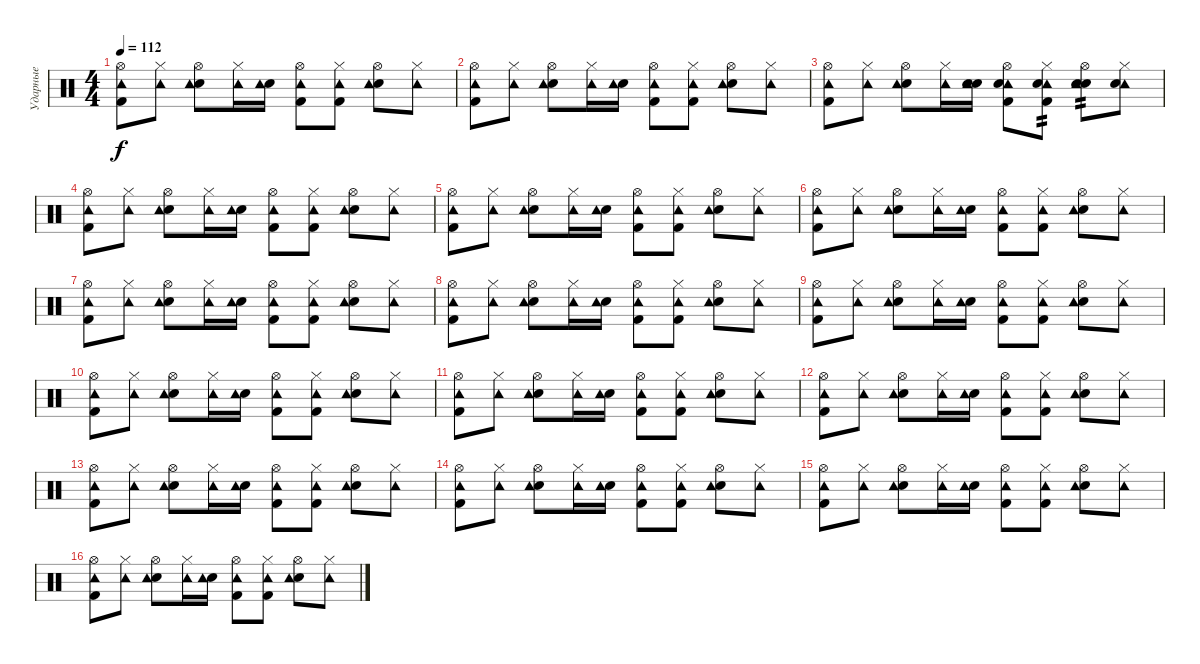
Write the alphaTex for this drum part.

\track ("Ударные" "Ударные") {instrument percussion}
\staff {score}
\articulation defaults
\ts (4 4)
\tempo 112
\clef neutral
\ks c
("Hi-Hat (open)" "Kick (hit) 2" "Tambourine (hit)").8{dy f} ("Hi-Hat (closed)" "Tambourine (hit)").8 ("Hi-Hat (open)" "Electric Snare (hit)" "Tambourine (hit)").8 ("Hi-Hat (closed)" "Tambourine (hit)").16 ("Electric Snare (hit)" "Tambourine (hit)").16 ("Hi-Hat (open)" "Kick (hit) 2" "Tambourine (hit)").8 ("Hi-Hat (closed)" "Kick (hit) 2" "Tambourine (hit)").8 ("Hi-Hat (open)" "Electric Snare (hit)" "Tambourine (hit)").8 ("Hi-Hat (closed)" "Tambourine (hit)").8 |
("Hi-Hat (open)" "Kick (hit) 2" "Tambourine (hit)").8 ("Hi-Hat (closed)" "Tambourine (hit)").8 ("Hi-Hat (open)" "Electric Snare (hit)" "Tambourine (hit)").8 ("Hi-Hat (closed)" "Tambourine (hit)").16 ("Electric Snare (hit)" "Tambourine (hit)").16 ("Hi-Hat (open)" "Kick (hit) 2" "Tambourine (hit)").8 ("Hi-Hat (closed)" "Kick (hit) 2" "Tambourine (hit)").8 ("Hi-Hat (open)" "Electric Snare (hit)" "Tambourine (hit)").8 ("Hi-Hat (closed)" "Tambourine (hit)").8 |
("Hi-Hat (open)" "Kick (hit) 2" "Tambourine (hit)").8 ("Hi-Hat (closed)" "Tambourine (hit)").8 ("Hi-Hat (open)" "Electric Snare (hit)" "Tambourine (hit)").8 ("Hi-Hat (closed)" "Tambourine (hit)").16 ("Electric Snare (hit)" "Tambourine (hit)" "Electric Snare (hit)").16 ("Hi-Hat (open)" "Kick (hit) 2" "Tambourine (hit)" "Electric Snare (hit)").8 ("Hi-Hat (closed)" "Kick (hit) 2" "Tambourine (hit)" "Electric Snare (hit)").8{tp 2} ("Hi-Hat (open)" "Electric Snare (hit)" "Tambourine (hit)" "Electric Snare (hit)").8{tp 2} ("Hi-Hat (closed)" "Tambourine (hit)" "Electric Snare (hit)").8 |
("Hi-Hat (open)" "Kick (hit) 2" "Tambourine (hit)").8 ("Hi-Hat (closed)" "Tambourine (hit)").8 ("Hi-Hat (open)" "Electric Snare (hit)" "Tambourine (hit)").8 ("Hi-Hat (closed)" "Tambourine (hit)").16 ("Electric Snare (hit)" "Tambourine (hit)").16 ("Hi-Hat (open)" "Kick (hit) 2" "Tambourine (hit)").8 ("Hi-Hat (closed)" "Kick (hit) 2" "Tambourine (hit)").8 ("Hi-Hat (open)" "Electric Snare (hit)" "Tambourine (hit)").8 ("Hi-Hat (closed)" "Tambourine (hit)").8 |
("Hi-Hat (open)" "Kick (hit) 2" "Tambourine (hit)").8 ("Hi-Hat (closed)" "Tambourine (hit)").8 ("Hi-Hat (open)" "Electric Snare (hit)" "Tambourine (hit)").8 ("Hi-Hat (closed)" "Tambourine (hit)").16 ("Electric Snare (hit)" "Tambourine (hit)").16 ("Hi-Hat (open)" "Kick (hit) 2" "Tambourine (hit)").8 ("Hi-Hat (closed)" "Kick (hit) 2" "Tambourine (hit)").8 ("Hi-Hat (open)" "Electric Snare (hit)" "Tambourine (hit)").8 ("Hi-Hat (closed)" "Tambourine (hit)").8 |
("Hi-Hat (open)" "Kick (hit) 2" "Tambourine (hit)").8 ("Hi-Hat (closed)" "Tambourine (hit)").8 ("Hi-Hat (open)" "Electric Snare (hit)" "Tambourine (hit)").8 ("Hi-Hat (closed)" "Tambourine (hit)").16 ("Electric Snare (hit)" "Tambourine (hit)").16 ("Hi-Hat (open)" "Kick (hit) 2" "Tambourine (hit)").8 ("Hi-Hat (closed)" "Kick (hit) 2" "Tambourine (hit)").8 ("Hi-Hat (open)" "Electric Snare (hit)" "Tambourine (hit)").8 ("Hi-Hat (closed)" "Tambourine (hit)").8 |
("Hi-Hat (open)" "Kick (hit) 2" "Tambourine (hit)").8 ("Hi-Hat (closed)" "Tambourine (hit)").8 ("Hi-Hat (open)" "Electric Snare (hit)" "Tambourine (hit)").8 ("Hi-Hat (closed)" "Tambourine (hit)").16 ("Electric Snare (hit)" "Tambourine (hit)").16 ("Hi-Hat (open)" "Kick (hit) 2" "Tambourine (hit)").8 ("Hi-Hat (closed)" "Kick (hit) 2" "Tambourine (hit)").8 ("Hi-Hat (open)" "Electric Snare (hit)" "Tambourine (hit)").8 ("Hi-Hat (closed)" "Tambourine (hit)").8 |
("Hi-Hat (open)" "Kick (hit) 2" "Tambourine (hit)").8 ("Hi-Hat (closed)" "Tambourine (hit)").8 ("Hi-Hat (open)" "Electric Snare (hit)" "Tambourine (hit)").8 ("Hi-Hat (closed)" "Tambourine (hit)").16 ("Electric Snare (hit)" "Tambourine (hit)").16 ("Hi-Hat (open)" "Kick (hit) 2" "Tambourine (hit)").8 ("Hi-Hat (closed)" "Kick (hit) 2" "Tambourine (hit)").8 ("Hi-Hat (open)" "Electric Snare (hit)" "Tambourine (hit)").8 ("Hi-Hat (closed)" "Tambourine (hit)").8 |
("Hi-Hat (open)" "Kick (hit) 2" "Tambourine (hit)").8 ("Hi-Hat (closed)" "Tambourine (hit)").8 ("Hi-Hat (open)" "Electric Snare (hit)" "Tambourine (hit)").8 ("Hi-Hat (closed)" "Tambourine (hit)").16 ("Electric Snare (hit)" "Tambourine (hit)").16 ("Hi-Hat (open)" "Kick (hit) 2" "Tambourine (hit)").8 ("Hi-Hat (closed)" "Kick (hit) 2" "Tambourine (hit)").8 ("Hi-Hat (open)" "Electric Snare (hit)" "Tambourine (hit)").8 ("Hi-Hat (closed)" "Tambourine (hit)").8 |
("Hi-Hat (open)" "Kick (hit) 2" "Tambourine (hit)").8 ("Hi-Hat (closed)" "Tambourine (hit)").8 ("Hi-Hat (open)" "Electric Snare (hit)" "Tambourine (hit)").8 ("Hi-Hat (closed)" "Tambourine (hit)").16 ("Electric Snare (hit)" "Tambourine (hit)").16 ("Hi-Hat (open)" "Kick (hit) 2" "Tambourine (hit)").8 ("Hi-Hat (closed)" "Kick (hit) 2" "Tambourine (hit)").8 ("Hi-Hat (open)" "Electric Snare (hit)" "Tambourine (hit)").8 ("Hi-Hat (closed)" "Tambourine (hit)").8 |
("Hi-Hat (open)" "Kick (hit) 2" "Tambourine (hit)").8 ("Hi-Hat (closed)" "Tambourine (hit)").8 ("Hi-Hat (open)" "Electric Snare (hit)" "Tambourine (hit)").8 ("Hi-Hat (closed)" "Tambourine (hit)").16 ("Electric Snare (hit)" "Tambourine (hit)").16 ("Hi-Hat (open)" "Kick (hit) 2" "Tambourine (hit)").8 ("Hi-Hat (closed)" "Kick (hit) 2" "Tambourine (hit)").8 ("Hi-Hat (open)" "Electric Snare (hit)" "Tambourine (hit)").8 ("Hi-Hat (closed)" "Tambourine (hit)").8 |
("Hi-Hat (open)" "Kick (hit) 2" "Tambourine (hit)").8 ("Hi-Hat (closed)" "Tambourine (hit)").8 ("Hi-Hat (open)" "Electric Snare (hit)" "Tambourine (hit)").8 ("Hi-Hat (closed)" "Tambourine (hit)").16 ("Electric Snare (hit)" "Tambourine (hit)").16 ("Hi-Hat (open)" "Kick (hit) 2" "Tambourine (hit)").8 ("Hi-Hat (closed)" "Kick (hit) 2" "Tambourine (hit)").8 ("Hi-Hat (open)" "Electric Snare (hit)" "Tambourine (hit)").8 ("Hi-Hat (closed)" "Tambourine (hit)").8 |
("Hi-Hat (open)" "Kick (hit) 2" "Tambourine (hit)").8 ("Hi-Hat (closed)" "Tambourine (hit)").8 ("Hi-Hat (open)" "Electric Snare (hit)" "Tambourine (hit)").8 ("Hi-Hat (closed)" "Tambourine (hit)").16 ("Electric Snare (hit)" "Tambourine (hit)").16 ("Hi-Hat (open)" "Kick (hit) 2" "Tambourine (hit)").8 ("Hi-Hat (closed)" "Kick (hit) 2" "Tambourine (hit)").8 ("Hi-Hat (open)" "Electric Snare (hit)" "Tambourine (hit)").8 ("Hi-Hat (closed)" "Tambourine (hit)").8 |
("Hi-Hat (open)" "Kick (hit) 2" "Tambourine (hit)").8 ("Hi-Hat (closed)" "Tambourine (hit)").8 ("Hi-Hat (open)" "Electric Snare (hit)" "Tambourine (hit)").8 ("Hi-Hat (closed)" "Tambourine (hit)").16 ("Electric Snare (hit)" "Tambourine (hit)").16 ("Hi-Hat (open)" "Kick (hit) 2" "Tambourine (hit)").8 ("Hi-Hat (closed)" "Kick (hit) 2" "Tambourine (hit)").8 ("Hi-Hat (open)" "Electric Snare (hit)" "Tambourine (hit)").8 ("Hi-Hat (closed)" "Tambourine (hit)").8 |
("Hi-Hat (open)" "Kick (hit) 2" "Tambourine (hit)").8 ("Hi-Hat (closed)" "Tambourine (hit)").8 ("Hi-Hat (open)" "Electric Snare (hit)" "Tambourine (hit)").8 ("Hi-Hat (closed)" "Tambourine (hit)").16 ("Electric Snare (hit)" "Tambourine (hit)").16 ("Hi-Hat (open)" "Kick (hit) 2" "Tambourine (hit)").8 ("Hi-Hat (closed)" "Kick (hit) 2" "Tambourine (hit)").8 ("Hi-Hat (open)" "Electric Snare (hit)" "Tambourine (hit)").8 ("Hi-Hat (closed)" "Tambourine (hit)").8 |
("Hi-Hat (open)" "Kick (hit) 2" "Tambourine (hit)").8 ("Hi-Hat (closed)" "Tambourine (hit)").8 ("Hi-Hat (open)" "Electric Snare (hit)" "Tambourine (hit)").8 ("Hi-Hat (closed)" "Tambourine (hit)").16 ("Electric Snare (hit)" "Tambourine (hit)").16 ("Hi-Hat (open)" "Kick (hit) 2" "Tambourine (hit)").8 ("Hi-Hat (closed)" "Kick (hit) 2" "Tambourine (hit)").8 ("Hi-Hat (open)" "Electric Snare (hit)" "Tambourine (hit)").8 ("Hi-Hat (closed)" "Tambourine (hit)").8
